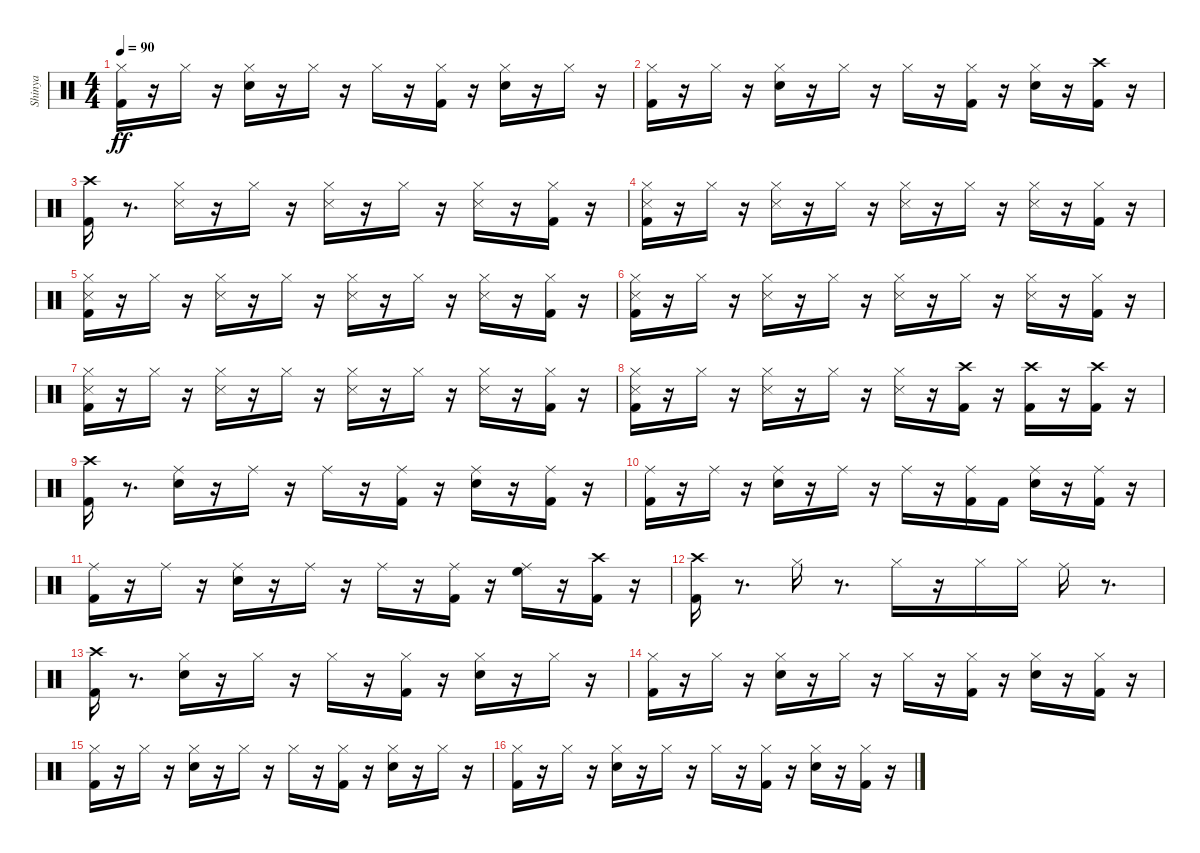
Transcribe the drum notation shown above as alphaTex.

\track ("Shinya" "Shinya") {instrument percussion}
\staff {score}
\articulation defaults
\ts (4 4)
\tempo 90
\clef neutral
\ks c
("Hi-Hat (closed)" "Kick (hit) 2").16{dy ff} r.16 "Hi-Hat (closed)".16 r.16 ("Snare (hit) 2" "Hi-Hat (closed)").16 r.16 "Hi-Hat (closed)".16 r.16 "Hi-Hat (closed)".16 r.16 ("Hi-Hat (closed)" "Kick (hit) 2").16 r.16 ("Snare (hit) 2" "Hi-Hat (closed)").16 r.16 "Hi-Hat (closed)".16 r.16 |
("Hi-Hat (closed)" "Kick (hit) 2").16 r.16 "Hi-Hat (closed)".16 r.16 ("Snare (hit) 2" "Hi-Hat (closed)").16 r.16 "Hi-Hat (closed)".16 r.16 "Hi-Hat (closed)".16 r.16 ("Hi-Hat (closed)" "Kick (hit) 2").16 r.16 ("Snare (hit) 2" "Hi-Hat (closed)").16 r.16 ("Crash high (hit)" "Kick (hit) 2").16 r.16 |
("Crash high (hit)" "Kick (hit) 2").16 r.8{d} ("Snare (side stick) 3" "Hi-Hat (closed)").16 r.16 "Hi-Hat (closed)".16 r.16 ("Snare (side stick) 3" "Hi-Hat (closed)").16 r.16 "Hi-Hat (closed)".16 r.16 ("Snare (side stick) 3" "Hi-Hat (closed)").16 r.16 ("Kick (hit) 2" "Hi-Hat (closed)").16 r.16 |
("Kick (hit) 2" "Snare (side stick) 3" "Hi-Hat (closed)").16 r.16 "Hi-Hat (closed)".16 r.16 ("Snare (side stick) 3" "Hi-Hat (closed)").16 r.16 "Hi-Hat (closed)".16 r.16 ("Snare (side stick) 3" "Hi-Hat (closed)").16 r.16 "Hi-Hat (closed)".16 r.16 ("Snare (side stick) 3" "Hi-Hat (closed)").16 r.16 ("Hi-Hat (closed)" "Kick (hit) 2").16 r.16 |
("Kick (hit) 2" "Snare (side stick) 3" "Hi-Hat (closed)").16 r.16 "Hi-Hat (closed)".16 r.16 ("Snare (side stick) 3" "Hi-Hat (closed)").16 r.16 "Hi-Hat (closed)".16 r.16 ("Snare (side stick) 3" "Hi-Hat (closed)").16 r.16 "Hi-Hat (closed)".16 r.16 ("Snare (side stick) 3" "Hi-Hat (closed)").16 r.16 ("Hi-Hat (closed)" "Kick (hit) 2").16 r.16 |
("Kick (hit) 2" "Snare (side stick) 3" "Hi-Hat (closed)").16 r.16 "Hi-Hat (closed)".16 r.16 ("Snare (side stick) 3" "Hi-Hat (closed)").16 r.16 "Hi-Hat (closed)".16 r.16 ("Snare (side stick) 3" "Hi-Hat (closed)").16 r.16 "Hi-Hat (closed)".16 r.16 ("Snare (side stick) 3" "Hi-Hat (closed)").16 r.16 ("Hi-Hat (closed)" "Kick (hit) 2").16 r.16 |
("Kick (hit) 2" "Snare (side stick) 3" "Hi-Hat (closed)").16 r.16 "Hi-Hat (closed)".16 r.16 ("Snare (side stick) 3" "Hi-Hat (closed)").16 r.16 "Hi-Hat (closed)".16 r.16 ("Snare (side stick) 3" "Hi-Hat (closed)").16 r.16 "Hi-Hat (closed)".16 r.16 ("Snare (side stick) 3" "Hi-Hat (closed)").16 r.16 ("Hi-Hat (closed)" "Kick (hit) 2").16 r.16 |
("Kick (hit) 2" "Snare (side stick) 3" "Hi-Hat (closed)").16 r.16 "Hi-Hat (closed)".16 r.16 ("Snare (side stick) 3" "Hi-Hat (closed)").16 r.16 "Hi-Hat (closed)".16 r.16 ("Hi-Hat (closed)" "Snare (side stick) 3").16 r.16 ("Crash high (hit)" "Kick (hit) 2").16 r.16 ("Crash high (hit)" "Kick (hit) 2").16 r.16 ("Crash high (hit)" "Kick (hit) 2").16 r.16 |
("Crash high (hit)" "Kick (hit) 2").16 r.8{d} ("Snare (hit) 2" "Ride (middle)").16 r.16 "Ride (middle)".16 r.16 "Ride (middle)".16 r.16 ("Ride (middle)" "Kick (hit) 2").16 r.16 ("Snare (hit) 2" "Ride (middle)").16 r.16 ("Ride (middle)" "Kick (hit) 2").16 r.16 |
("Ride (middle)" "Kick (hit) 2").16 r.16 "Ride (middle)".16 r.16 ("Snare (hit) 2" "Ride (middle)").16 r.16 "Ride (middle)".16 r.16 "Ride (middle)".16 r.16 ("Ride (middle)" "Kick (hit) 2").16 "Kick (hit) 2".16 ("Snare (hit) 2" "Ride (middle)").16 r.16 ("Ride (middle)" "Kick (hit) 2").16 r.16 |
("Ride (middle)" "Kick (hit) 2").16 r.16 "Ride (middle)".16 r.16 ("Snare (hit) 2" "Ride (middle)").16 r.16 "Ride (middle)".16 r.16 "Ride (middle)".16 r.16 ("Ride (middle)" "Kick (hit) 2").16 r.16 ("High Floor Tom (hit)" "Ride (middle)").16 r.16 ("Crash high (hit)" "Kick (hit) 2").16 r.16 |
("Crash high (hit)" "Kick (hit) 2").16 r.8{d} "Hi-Hat (closed)".16 r.8{d} "Hi-Hat (closed)".16 r.16 "Hi-Hat (closed)".16 "Hi-Hat (closed)".16 "Ride (middle)".16 r.8{d} |
("Crash high (hit)" "Kick (hit) 2").16 r.8{d} ("Snare (hit) 2" "Hi-Hat (closed)").16 r.16 "Hi-Hat (closed)".16 r.16 "Hi-Hat (closed)".16 r.16 ("Hi-Hat (closed)" "Kick (hit) 2").16 r.16 ("Snare (hit) 2" "Hi-Hat (closed)").16 r.16 "Hi-Hat (closed)".16 r.16 |
("Hi-Hat (closed)" "Kick (hit) 2").16 r.16 "Hi-Hat (closed)".16 r.16 ("Snare (hit) 2" "Hi-Hat (closed)").16 r.16 "Hi-Hat (closed)".16 r.16 "Hi-Hat (closed)".16 r.16 ("Hi-Hat (closed)" "Kick (hit) 2").16 r.16 ("Snare (hit) 2" "Hi-Hat (closed)").16 r.16 ("Hi-Hat (closed)" "Kick (hit) 2").16 r.16 |
("Hi-Hat (closed)" "Kick (hit) 2").16 r.16 "Hi-Hat (closed)".16 r.16 ("Snare (hit) 2" "Hi-Hat (closed)").16 r.16 "Hi-Hat (closed)".16 r.16 "Hi-Hat (closed)".16 r.16 ("Hi-Hat (closed)" "Kick (hit) 2").16 r.16 ("Snare (hit) 2" "Hi-Hat (closed)").16 r.16 "Hi-Hat (closed)".16 r.16 |
("Hi-Hat (closed)" "Kick (hit) 2").16 r.16 "Hi-Hat (closed)".16 r.16 ("Snare (hit) 2" "Hi-Hat (closed)").16 r.16 "Hi-Hat (closed)".16 r.16 "Hi-Hat (closed)".16 r.16 ("Hi-Hat (closed)" "Kick (hit) 2").16 r.16 ("Snare (hit) 2" "Hi-Hat (closed)").16 r.16 ("Hi-Hat (closed)" "Kick (hit) 2").16 r.16
